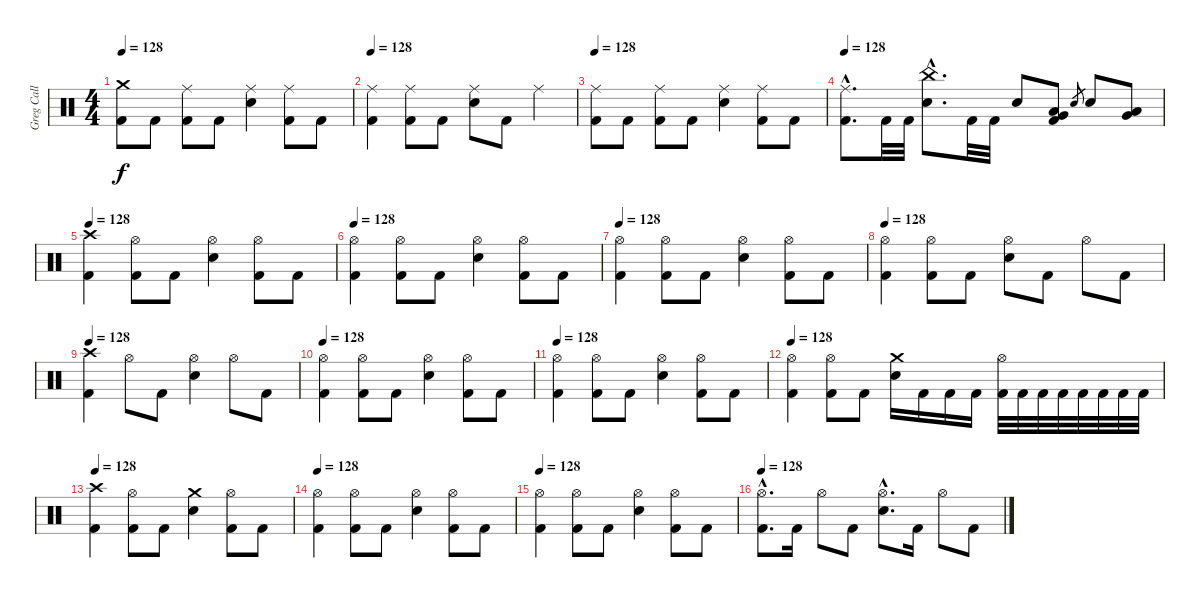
\track ("Greg Call (Drums)" "Greg Call ") {instrument percussion}
\staff {score}
\articulation defaults
\ts (4 4)
\tempo 128
\clef neutral
\ks c
("Crash medium (hit)" "Kick (hit) 2").8{dy f} "Kick (hit) 2".8 ("Ride (middle)" "Kick (hit) 2").8 "Kick (hit) 2".8 ("Ride (middle)" "Snare (hit) 2").4 ("Ride (middle)" "Kick (hit) 2").8 "Kick (hit) 2".8 |
\tempo 128
("Ride (middle)" "Kick (hit) 2").4 ("Ride (middle)" "Kick (hit) 2").8 "Kick (hit) 2".8 ("Ride (middle)" "Snare (hit) 2").8 "Kick (hit) 2".8 "Ride (middle)".4 |
\tempo 128
("Ride (middle)" "Kick (hit) 2").8 "Kick (hit) 2".8 ("Ride (middle)" "Kick (hit) 2").8 "Kick (hit) 2".8 ("Ride (middle)" "Snare (hit) 2").4 ("Ride (middle)" "Kick (hit) 2").8 "Kick (hit) 2".8 |
\tempo 128
("Ride (middle)"{hac} "Kick (hit) 2"{hac}).8{d} "Kick (hit) 2".32 "Kick (hit) 2".32 ("China (hit)"{hac} "Snare (hit) 2"{hac}).8{d} "Kick (hit) 2".32 "Kick (hit) 2".32 "Snare (hit) 2".8 ("Kick (hit) 2" "Very Low Tom (hit)" "Low Tom (hit)").8 "Snare (hit) 2".8{gr} "Snare (hit) 2".8 ("Very Low Tom (hit)" "Low Floor Tom (hit)").8 |
\tempo 128
("Crash high (hit)" "Kick (hit) 2").4 ("Hi-Hat (open)" "Kick (hit) 2").8 "Kick (hit) 2".8 ("Hi-Hat (open)" "Snare (hit) 2").4 ("Hi-Hat (open)" "Kick (hit) 2").8 "Kick (hit) 2".8 |
\tempo 128
("Hi-Hat (open)" "Kick (hit) 2").4 ("Hi-Hat (open)" "Kick (hit) 2").8 "Kick (hit) 2".8 ("Hi-Hat (open)" "Snare (hit) 2").4 ("Hi-Hat (open)" "Kick (hit) 2").8 "Kick (hit) 2".8 |
\tempo 128
("Hi-Hat (open)" "Kick (hit) 2").4 ("Hi-Hat (open)" "Kick (hit) 2").8 "Kick (hit) 2".8 ("Hi-Hat (open)" "Snare (hit) 2").4 ("Hi-Hat (open)" "Kick (hit) 2").8 "Kick (hit) 2".8 |
\tempo 128
("Hi-Hat (open)" "Kick (hit) 2").4 ("Hi-Hat (open)" "Kick (hit) 2").8 "Kick (hit) 2".8 ("Hi-Hat (open)" "Snare (hit) 2").8 "Kick (hit) 2".8 "Hi-Hat (open)".8 "Kick (hit) 2".8 |
\tempo 128
("Crash high (hit)" "Kick (hit) 2").4 "Hi-Hat (open)".8 "Kick (hit) 2".8 ("Hi-Hat (open)" "Snare (hit) 2").4 "Hi-Hat (open)".8 "Kick (hit) 2".8 |
\tempo 128
("Hi-Hat (open)" "Kick (hit) 2").4 ("Hi-Hat (open)" "Kick (hit) 2").8 "Kick (hit) 2".8 ("Hi-Hat (open)" "Snare (hit) 2").4 ("Hi-Hat (open)" "Kick (hit) 2").8 "Kick (hit) 2".8 |
\tempo 128
("Hi-Hat (open)" "Kick (hit) 2").4 ("Hi-Hat (open)" "Kick (hit) 2").8 "Kick (hit) 2".8 ("Hi-Hat (open)" "Snare (hit) 2").4 ("Hi-Hat (open)" "Kick (hit) 2").8 "Kick (hit) 2".8 |
\tempo 128
("Hi-Hat (open)" "Kick (hit) 2").4 ("Hi-Hat (open)" "Kick (hit) 2").8 "Kick (hit) 2".8 ("Crash medium (hit)" "Snare (hit) 2").16 "Kick (hit) 2".16 "Kick (hit) 2".16 "Kick (hit) 2".16 ("Hi-Hat (open)" "Kick (hit) 2").32 "Kick (hit) 2".32 "Kick (hit) 2".32 "Kick (hit) 2".32 "Kick (hit) 2".32 "Kick (hit) 2".32 "Kick (hit) 2".32 "Kick (hit) 2".32 |
\tempo 128
("Crash high (hit)" "Kick (hit) 2").4 ("Hi-Hat (open)" "Kick (hit) 2").8 "Kick (hit) 2".8 ("Crash medium (hit)" "Snare (hit) 2").4 ("Hi-Hat (open)" "Kick (hit) 2").8 "Kick (hit) 2".8 |
\tempo 128
("Hi-Hat (open)" "Kick (hit) 2").4 ("Hi-Hat (open)" "Kick (hit) 2").8 "Kick (hit) 2".8 ("Hi-Hat (open)" "Snare (hit) 2").4 ("Hi-Hat (open)" "Kick (hit) 2").8 "Kick (hit) 2".8 |
\tempo 128
("Hi-Hat (open)" "Kick (hit) 2").4 ("Hi-Hat (open)" "Kick (hit) 2").8 "Kick (hit) 2".8 ("Hi-Hat (open)" "Snare (hit) 2").4 ("Hi-Hat (open)" "Kick (hit) 2").8 "Kick (hit) 2".8 |
\tempo 128
("Hi-Hat (open)"{hac} "Kick (hit) 2"{hac}).8{d} "Kick (hit) 2".16 "Hi-Hat (open)".8 "Kick (hit) 2".8 ("Snare (hit) 2"{hac} "Hi-Hat (open)"{hac}).8{d} "Kick (hit) 2".16 "Hi-Hat (open)".8 "Kick (hit) 2".8
